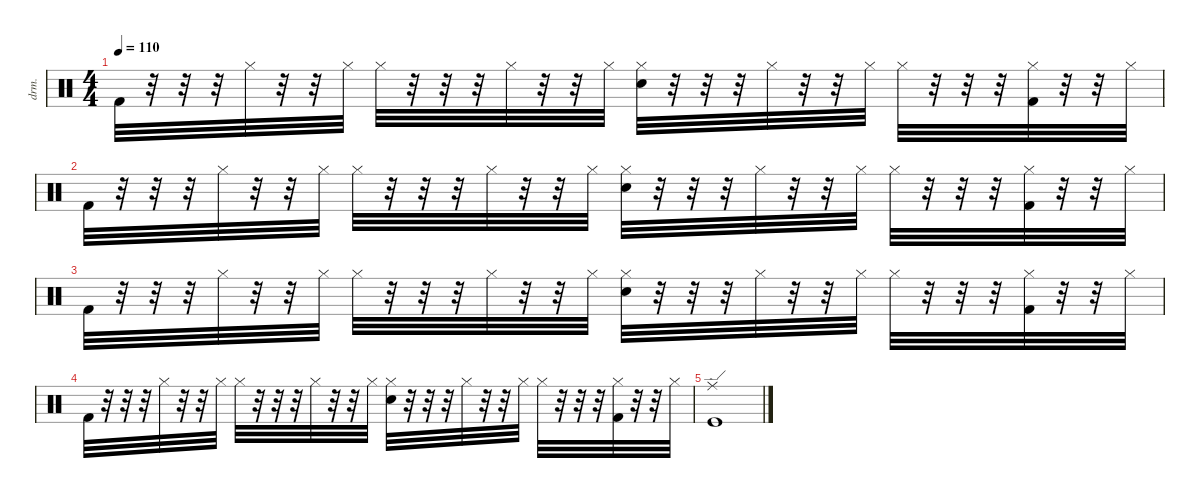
\defaultSystemsLayout 4
\hideDynamics
\bracketExtendMode nobrackets
\otherSystemsTrackNameOrientation horizontal
\track ("Drumkit" "drm.") {instrument percussion}
\staff {score}
\articulation defaults
\ts (4 4)
\tempo 110
\clef neutral
\ks c "Kick (hit) 2".32{dy mf beam Down}
r.32{beam Down} r.32{beam Down} r.32{beam Down} "Hi-Hat (closed)".32{beam Down} r.32{beam Down} r.32{beam Down} "Hi-Hat (closed)".32{beam Down} "Hi-Hat (closed)".32{beam Down} r.32{beam Down} r.32{beam Down} r.32{beam Down} "Hi-Hat (closed)".32{beam Down} r.32{beam Down} r.32{beam Down} "Hi-Hat (closed)".32{beam Down} ("Snare (hit) 2" "Hi-Hat (closed)").32{beam Down} r.32{beam Down} r.32{beam Down} r.32{beam Down} "Hi-Hat (closed)".32{beam Down} r.32{beam Down} r.32{beam Down} "Hi-Hat (closed)".32{beam Down} "Hi-Hat (closed)".32{beam Down} r.32{beam Down} r.32{beam Down} r.32{beam Down} ("Hi-Hat (closed)" "Kick (hit) 2").32{beam Down} r.32{beam Down} r.32{beam Down} "Hi-Hat (closed)".32{beam Down} |
"Kick (hit) 2".32{beam Down} r.32{beam Down} r.32{beam Down} r.32{beam Down} "Hi-Hat (closed)".32{beam Down} r.32{beam Down} r.32{beam Down} "Hi-Hat (closed)".32{beam Down} "Hi-Hat (closed)".32{beam Down} r.32{beam Down} r.32{beam Down} r.32{beam Down} "Hi-Hat (closed)".32{beam Down} r.32{beam Down} r.32{beam Down} "Hi-Hat (closed)".32{beam Down} ("Snare (hit) 2" "Hi-Hat (closed)").32{beam Down} r.32{beam Down} r.32{beam Down} r.32{beam Down} "Hi-Hat (closed)".32{beam Down} r.32{beam Down} r.32{beam Down} "Hi-Hat (closed)".32{beam Down} "Hi-Hat (closed)".32{beam Down} r.32{beam Down} r.32{beam Down} r.32{beam Down} ("Hi-Hat (closed)" "Kick (hit) 2").32{beam Down} r.32{beam Down} r.32{beam Down} "Hi-Hat (closed)".32{beam Down} |
"Kick (hit) 2".32{beam Down} r.32{beam Down} r.32{beam Down} r.32{beam Down} "Hi-Hat (closed)".32{beam Down} r.32{beam Down} r.32{beam Down} "Hi-Hat (closed)".32{beam Down} "Hi-Hat (closed)".32{beam Down} r.32{beam Down} r.32{beam Down} r.32{beam Down} "Hi-Hat (closed)".32{beam Down} r.32{beam Down} r.32{beam Down} "Hi-Hat (closed)".32{beam Down} ("Snare (hit) 2" "Hi-Hat (closed)").32{beam Down} r.32{beam Down} r.32{beam Down} r.32{beam Down} "Hi-Hat (closed)".32{beam Down} r.32{beam Down} r.32{beam Down} "Hi-Hat (closed)".32{beam Down} "Hi-Hat (closed)".32{beam Down} r.32{beam Down} r.32{beam Down} r.32{beam Down} ("Hi-Hat (closed)" "Kick (hit) 2").32{beam Down} r.32{beam Down} r.32{beam Down} "Hi-Hat (closed)".32{beam Down} |
"Kick (hit) 2".32{beam Down} r.32{beam Down} r.32{beam Down} r.32{beam Down} "Hi-Hat (closed)".32{beam Down} r.32{beam Down} r.32{beam Down} "Hi-Hat (closed)".32{beam Down} "Hi-Hat (closed)".32{beam Down} r.32{beam Down} r.32{beam Down} r.32{beam Down} "Hi-Hat (closed)".32{beam Down} r.32{beam Down} r.32{beam Down} "Hi-Hat (closed)".32{beam Down} ("Snare (hit) 2" "Hi-Hat (closed)").32{beam Down} r.32{beam Down} r.32{beam Down} r.32{beam Down} "Hi-Hat (closed)".32{beam Down} r.32{beam Down} r.32{beam Down} "Hi-Hat (closed)".32{beam Down} "Hi-Hat (closed)".32{beam Down} r.32{beam Down} r.32{beam Down} r.32{beam Down} ("Hi-Hat (closed)" "Kick (hit) 2").32{beam Down} r.32{beam Down} r.32{beam Down} "Hi-Hat (closed)".32{beam Down} |
("Ride (edge)" "Kick (hit)").1{beam Down}
